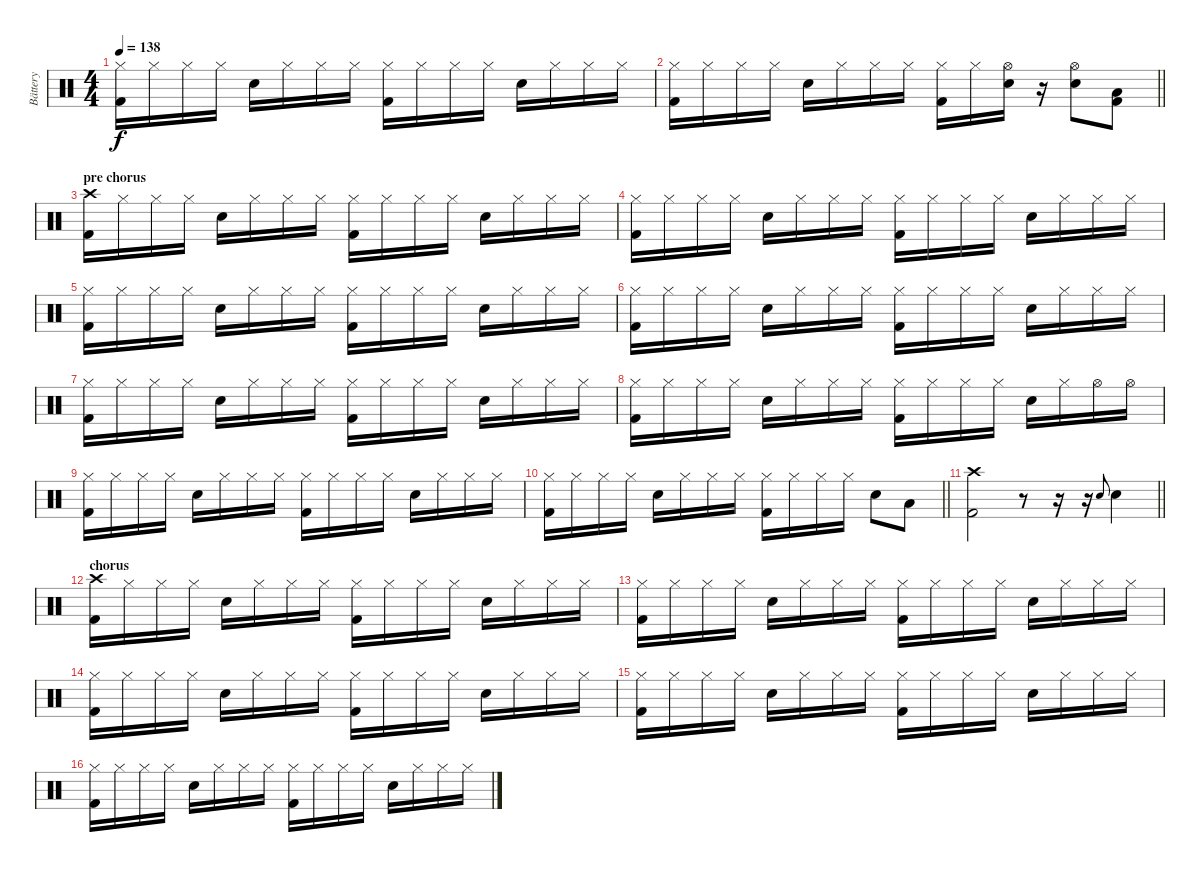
\track ("Bättery" "Bättery") {instrument percussion}
\staff {score}
\articulation defaults
\ts (4 4)
\tempo 138
\clef neutral
\ks c
("Hi-Hat (closed)" "Kick (hit) 2").16{dy f} "Hi-Hat (closed)".16 "Hi-Hat (closed)".16 "Hi-Hat (closed)".16 "Electric Snare (hit)".16 "Hi-Hat (closed)".16 "Hi-Hat (closed)".16 "Hi-Hat (closed)".16 ("Hi-Hat (closed)" "Kick (hit) 2").16 "Hi-Hat (closed)".16 "Hi-Hat (closed)".16 "Hi-Hat (closed)".16 "Electric Snare (hit)".16 "Hi-Hat (closed)".16 "Hi-Hat (closed)".16 "Hi-Hat (closed)".16 |
\barLineRight lightlight
("Hi-Hat (closed)" "Kick (hit) 2").16 "Hi-Hat (closed)".16 "Hi-Hat (closed)".16 "Hi-Hat (closed)".16 "Electric Snare (hit)".16 "Hi-Hat (closed)".16 "Hi-Hat (closed)".16 "Hi-Hat (closed)".16 ("Hi-Hat (closed)" "Kick (hit) 2").16 "Hi-Hat (closed)".16 ("Hi-Hat (open)" "Electric Snare (hit)").16 r.16 ("Hi-Hat (open)" "Electric Snare (hit)").8 ("Low Tom (hit)" "Kick (hit) 2").8 |
\section ("" "pre chorus")
("Crash high (hit)" "Kick (hit) 2").16 "Hi-Hat (closed)".16 "Hi-Hat (closed)".16 "Hi-Hat (closed)".16 "Electric Snare (hit)".16 "Hi-Hat (closed)".16 "Hi-Hat (closed)".16 "Hi-Hat (closed)".16 ("Hi-Hat (closed)" "Kick (hit) 2").16 "Hi-Hat (closed)".16 "Hi-Hat (closed)".16 "Hi-Hat (closed)".16 "Electric Snare (hit)".16 "Hi-Hat (closed)".16 "Hi-Hat (closed)".16 "Hi-Hat (closed)".16 |
("Hi-Hat (closed)" "Kick (hit) 2").16 "Hi-Hat (closed)".16 "Hi-Hat (closed)".16 "Hi-Hat (closed)".16 "Electric Snare (hit)".16 "Hi-Hat (closed)".16 "Hi-Hat (closed)".16 "Hi-Hat (closed)".16 ("Hi-Hat (closed)" "Kick (hit) 2").16 "Hi-Hat (closed)".16 "Hi-Hat (closed)".16 "Hi-Hat (closed)".16 "Electric Snare (hit)".16 "Hi-Hat (closed)".16 "Hi-Hat (closed)".16 "Hi-Hat (closed)".16 |
("Hi-Hat (closed)" "Kick (hit) 2").16 "Hi-Hat (closed)".16 "Hi-Hat (closed)".16 "Hi-Hat (closed)".16 "Electric Snare (hit)".16 "Hi-Hat (closed)".16 "Hi-Hat (closed)".16 "Hi-Hat (closed)".16 ("Hi-Hat (closed)" "Kick (hit) 2").16 "Hi-Hat (closed)".16 "Hi-Hat (closed)".16 "Hi-Hat (closed)".16 "Electric Snare (hit)".16 "Hi-Hat (closed)".16 "Hi-Hat (closed)".16 "Hi-Hat (closed)".16 |
("Hi-Hat (closed)" "Kick (hit) 2").16 "Hi-Hat (closed)".16 "Hi-Hat (closed)".16 "Hi-Hat (closed)".16 "Electric Snare (hit)".16 "Hi-Hat (closed)".16 "Hi-Hat (closed)".16 "Hi-Hat (closed)".16 ("Hi-Hat (closed)" "Kick (hit) 2").16 "Hi-Hat (closed)".16 "Hi-Hat (closed)".16 "Hi-Hat (closed)".16 "Electric Snare (hit)".16 "Hi-Hat (closed)".16 "Hi-Hat (closed)".16 "Hi-Hat (closed)".16 |
("Hi-Hat (closed)" "Kick (hit) 2").16 "Hi-Hat (closed)".16 "Hi-Hat (closed)".16 "Hi-Hat (closed)".16 "Electric Snare (hit)".16 "Hi-Hat (closed)".16 "Hi-Hat (closed)".16 "Hi-Hat (closed)".16 ("Hi-Hat (closed)" "Kick (hit) 2").16 "Hi-Hat (closed)".16 "Hi-Hat (closed)".16 "Hi-Hat (closed)".16 "Electric Snare (hit)".16 "Hi-Hat (closed)".16 "Hi-Hat (closed)".16 "Hi-Hat (closed)".16 |
("Hi-Hat (closed)" "Kick (hit) 2").16 "Hi-Hat (closed)".16 "Hi-Hat (closed)".16 "Hi-Hat (closed)".16 "Electric Snare (hit)".16 "Hi-Hat (closed)".16 "Hi-Hat (closed)".16 "Hi-Hat (closed)".16 ("Hi-Hat (closed)" "Kick (hit) 2").16 "Hi-Hat (closed)".16 "Hi-Hat (closed)".16 "Hi-Hat (closed)".16 "Electric Snare (hit)".16 "Hi-Hat (closed)".16 "Hi-Hat (open)".16 "Hi-Hat (open)".16 |
("Hi-Hat (closed)" "Kick (hit) 2").16 "Hi-Hat (closed)".16 "Hi-Hat (closed)".16 "Hi-Hat (closed)".16 "Electric Snare (hit)".16 "Hi-Hat (closed)".16 "Hi-Hat (closed)".16 "Hi-Hat (closed)".16 ("Hi-Hat (closed)" "Kick (hit) 2").16 "Hi-Hat (closed)".16 "Hi-Hat (closed)".16 "Hi-Hat (closed)".16 "Electric Snare (hit)".16 "Hi-Hat (closed)".16 "Hi-Hat (closed)".16 "Hi-Hat (closed)".16 |
\barLineRight lightlight
("Hi-Hat (closed)" "Kick (hit) 2").16 "Hi-Hat (closed)".16 "Hi-Hat (closed)".16 "Hi-Hat (closed)".16 "Electric Snare (hit)".16 "Hi-Hat (closed)".16 "Hi-Hat (closed)".16 "Hi-Hat (closed)".16 ("Hi-Hat (closed)" "Kick (hit) 2").16 "Hi-Hat (closed)".16 "Hi-Hat (closed)".16 "Hi-Hat (closed)".16 "Electric Snare (hit)".8 "Low Tom (hit)".8 |
\barLineRight lightlight
("Crash high (hit)" "Kick (hit) 2").2 r.8 r.16 r.16 "Electric Snare (hit)".8{gr onbeat} "Electric Snare (hit)".4 |
\section ("" "chorus")
("Crash high (hit)" "Kick (hit) 2").16 "Hi-Hat (closed)".16 "Hi-Hat (closed)".16 "Hi-Hat (closed)".16 "Electric Snare (hit)".16 "Hi-Hat (closed)".16 "Hi-Hat (closed)".16 "Hi-Hat (closed)".16 ("Hi-Hat (closed)" "Kick (hit) 2").16 "Hi-Hat (closed)".16 "Hi-Hat (closed)".16 "Hi-Hat (closed)".16 "Electric Snare (hit)".16 "Hi-Hat (closed)".16 "Hi-Hat (closed)".16 "Hi-Hat (closed)".16 |
("Hi-Hat (closed)" "Kick (hit) 2").16 "Hi-Hat (closed)".16 "Hi-Hat (closed)".16 "Hi-Hat (closed)".16 "Electric Snare (hit)".16 "Hi-Hat (closed)".16 "Hi-Hat (closed)".16 "Hi-Hat (closed)".16 ("Hi-Hat (closed)" "Kick (hit) 2").16 "Hi-Hat (closed)".16 "Hi-Hat (closed)".16 "Hi-Hat (closed)".16 "Electric Snare (hit)".16 "Hi-Hat (closed)".16 "Hi-Hat (closed)".16 "Hi-Hat (closed)".16 |
("Hi-Hat (closed)" "Kick (hit) 2").16 "Hi-Hat (closed)".16 "Hi-Hat (closed)".16 "Hi-Hat (closed)".16 "Electric Snare (hit)".16 "Hi-Hat (closed)".16 "Hi-Hat (closed)".16 "Hi-Hat (closed)".16 ("Hi-Hat (closed)" "Kick (hit) 2").16 "Hi-Hat (closed)".16 "Hi-Hat (closed)".16 "Hi-Hat (closed)".16 "Electric Snare (hit)".16 "Hi-Hat (closed)".16 "Hi-Hat (closed)".16 "Hi-Hat (closed)".16 |
("Hi-Hat (closed)" "Kick (hit) 2").16 "Hi-Hat (closed)".16 "Hi-Hat (closed)".16 "Hi-Hat (closed)".16 "Electric Snare (hit)".16 "Hi-Hat (closed)".16 "Hi-Hat (closed)".16 "Hi-Hat (closed)".16 ("Hi-Hat (closed)" "Kick (hit) 2").16 "Hi-Hat (closed)".16 "Hi-Hat (closed)".16 "Hi-Hat (closed)".16 "Electric Snare (hit)".16 "Hi-Hat (closed)".16 "Hi-Hat (closed)".16 "Hi-Hat (closed)".16 |
("Hi-Hat (closed)" "Kick (hit) 2").16 "Hi-Hat (closed)".16 "Hi-Hat (closed)".16 "Hi-Hat (closed)".16 "Electric Snare (hit)".16 "Hi-Hat (closed)".16 "Hi-Hat (closed)".16 "Hi-Hat (closed)".16 ("Hi-Hat (closed)" "Kick (hit) 2").16 "Hi-Hat (closed)".16 "Hi-Hat (closed)".16 "Hi-Hat (closed)".16 "Electric Snare (hit)".16 "Hi-Hat (closed)".16 "Hi-Hat (closed)".16 "Hi-Hat (closed)".16
